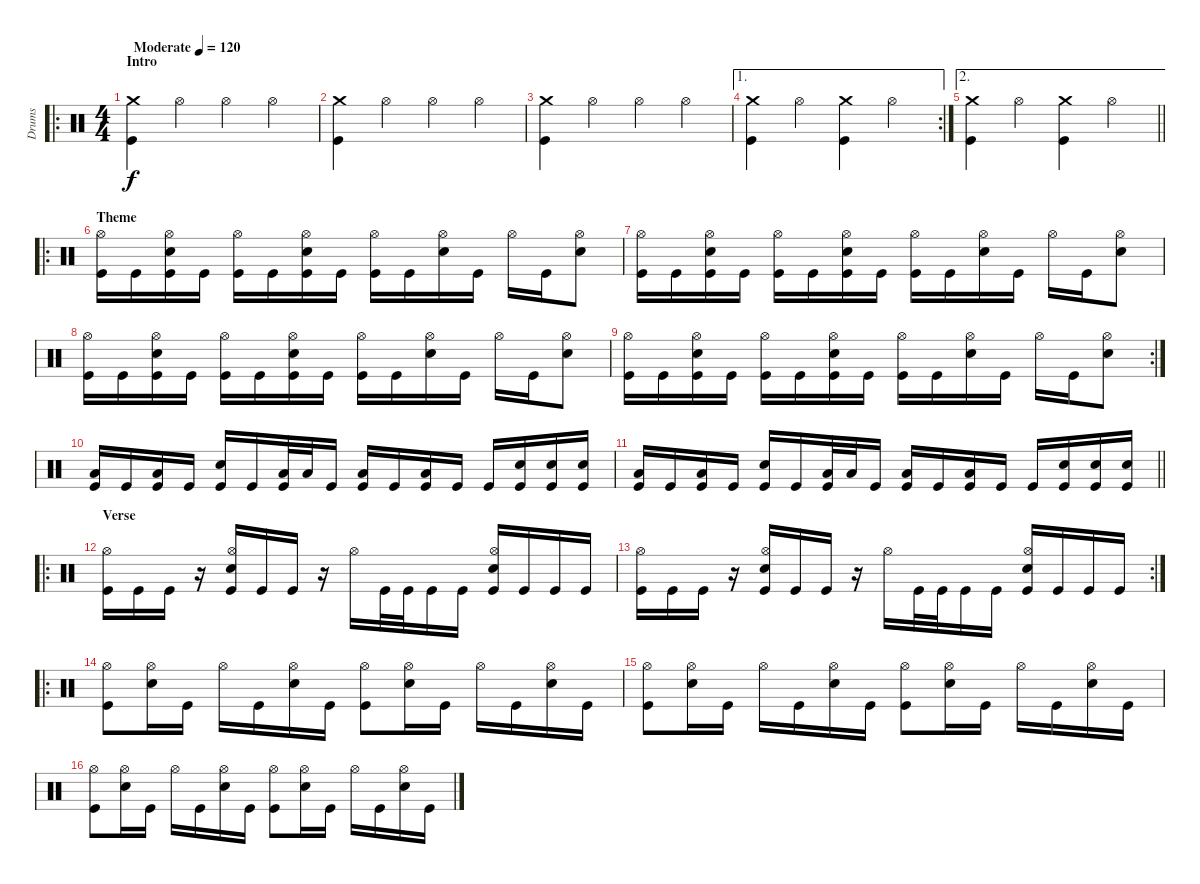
\track ("Drums" "Drums") {instrument percussion}
\staff {score}
\articulation defaults
\ro
\ts (4 4)
\section ("" "Intro")
\tempo (120 "Moderate")
\clef neutral
\ks c
("Crash medium (hit)" "Kick (hit)").4{dy f} "Hi-Hat (open)".4 "Hi-Hat (open)".4 "Hi-Hat (open)".4 |
("Crash medium (hit)" "Kick (hit)").4 "Hi-Hat (open)".4 "Hi-Hat (open)".4 "Hi-Hat (open)".4 |
("Crash medium (hit)" "Kick (hit)").4 "Hi-Hat (open)".4 "Hi-Hat (open)".4 "Hi-Hat (open)".4 |
\ae 1
\rc 2
("Crash medium (hit)" "Kick (hit)").4 "Hi-Hat (open)".4 ("Crash medium (hit)" "Kick (hit)").4 "Hi-Hat (open)".4 |
\ae 2
\barLineRight lightlight
("Crash medium (hit)" "Kick (hit)").4 "Hi-Hat (open)".4 ("Crash medium (hit)" "Kick (hit)").4 "Hi-Hat (open)".4 |
\ro
\section ("" "Theme")
("Hi-Hat (open)" "Kick (hit)").16 "Kick (hit)".16 ("Hi-Hat (open)" "Snare (hit) 2" "Kick (hit)").16 "Kick (hit)".16 ("Hi-Hat (open)" "Kick (hit)").16 "Kick (hit)".16 ("Hi-Hat (open)" "Snare (hit) 2" "Kick (hit)").16 "Kick (hit)".16 ("Hi-Hat (open)" "Kick (hit)").16 "Kick (hit)".16 ("Hi-Hat (open)" "Snare (hit) 2").16 "Kick (hit)".16 "Hi-Hat (open)".16 "Kick (hit)".16 ("Hi-Hat (open)" "Snare (hit) 2").8 |
("Hi-Hat (open)" "Kick (hit)").16 "Kick (hit)".16 ("Hi-Hat (open)" "Snare (hit) 2" "Kick (hit)").16 "Kick (hit)".16 ("Hi-Hat (open)" "Kick (hit)").16 "Kick (hit)".16 ("Hi-Hat (open)" "Snare (hit) 2" "Kick (hit)").16 "Kick (hit)".16 ("Hi-Hat (open)" "Kick (hit)").16 "Kick (hit)".16 ("Hi-Hat (open)" "Snare (hit) 2").16 "Kick (hit)".16 "Hi-Hat (open)".16 "Kick (hit)".16 ("Hi-Hat (open)" "Snare (hit) 2").8 |
("Hi-Hat (open)" "Kick (hit)").16 "Kick (hit)".16 ("Hi-Hat (open)" "Snare (hit) 2" "Kick (hit)").16 "Kick (hit)".16 ("Hi-Hat (open)" "Kick (hit)").16 "Kick (hit)".16 ("Hi-Hat (open)" "Snare (hit) 2" "Kick (hit)").16 "Kick (hit)".16 ("Hi-Hat (open)" "Kick (hit)").16 "Kick (hit)".16 ("Hi-Hat (open)" "Snare (hit) 2").16 "Kick (hit)".16 "Hi-Hat (open)".16 "Kick (hit)".16 ("Hi-Hat (open)" "Snare (hit) 2").8 |
\rc 2
("Hi-Hat (open)" "Kick (hit)").16 "Kick (hit)".16 ("Hi-Hat (open)" "Snare (hit) 2" "Kick (hit)").16 "Kick (hit)".16 ("Hi-Hat (open)" "Kick (hit)").16 "Kick (hit)".16 ("Hi-Hat (open)" "Snare (hit) 2" "Kick (hit)").16 "Kick (hit)".16 ("Hi-Hat (open)" "Kick (hit)").16 "Kick (hit)".16 ("Hi-Hat (open)" "Snare (hit) 2").16 "Kick (hit)".16 "Hi-Hat (open)".16 "Kick (hit)".16 ("Hi-Hat (open)" "Snare (hit) 2").8 |
("Low Floor Tom (hit)" "Kick (hit)").16 "Kick (hit)".16 ("Low Floor Tom (hit)" "Kick (hit)").16 "Kick (hit)".16 ("Snare (hit) 2" "Kick (hit)").16 "Kick (hit)".16 ("Low Tom (hit)" "Kick (hit)").32 "Low Tom (hit)".32 "Kick (hit)".16 ("Low Floor Tom (hit)" "Kick (hit)").16 "Kick (hit)".16 ("Low Floor Tom (hit)" "Kick (hit)").16 "Kick (hit)".16 "Kick (hit)".16 ("Snare (hit) 2" "Kick (hit)").16 ("Snare (hit) 2" "Kick (hit)").16 ("Snare (hit) 2" "Kick (hit)").16 |
\barLineRight lightlight
("Low Floor Tom (hit)" "Kick (hit)").16 "Kick (hit)".16 ("Low Floor Tom (hit)" "Kick (hit)").16 "Kick (hit)".16 ("Snare (hit) 2" "Kick (hit)").16 "Kick (hit)".16 ("Low Tom (hit)" "Kick (hit)").32 "Low Tom (hit)".32 "Kick (hit)".16 ("Low Floor Tom (hit)" "Kick (hit)").16 "Kick (hit)".16 ("Low Floor Tom (hit)" "Kick (hit)").16 "Kick (hit)".16 "Kick (hit)".16 ("Snare (hit) 2" "Kick (hit)").16 ("Snare (hit) 2" "Kick (hit)").16 ("Snare (hit) 2" "Kick (hit)").16 |
\ro
\section ("" "Verse")
("Hi-Hat (open)" "Kick (hit)").16 "Kick (hit)".16 "Kick (hit)".16 r.16 ("Hi-Hat (open)" "Snare (hit) 2" "Kick (hit)").16 "Kick (hit)".16 "Kick (hit)".16 r.16 "Hi-Hat (open)".16 "Kick (hit)".32 "Kick (hit)".32 "Kick (hit)".16 "Kick (hit)".16 ("Hi-Hat (open)" "Snare (hit) 2" "Kick (hit)").16 "Kick (hit)".16 "Kick (hit)".16 "Kick (hit)".16 |
\rc 2
("Hi-Hat (open)" "Kick (hit)").16 "Kick (hit)".16 "Kick (hit)".16 r.16 ("Hi-Hat (open)" "Snare (hit) 2" "Kick (hit)").16 "Kick (hit)".16 "Kick (hit)".16 r.16 "Hi-Hat (open)".16 "Kick (hit)".32 "Kick (hit)".32 "Kick (hit)".16 "Kick (hit)".16 ("Hi-Hat (open)" "Snare (hit) 2" "Kick (hit)").16 "Kick (hit)".16 "Kick (hit)".16 "Kick (hit)".16 |
\ro
("Hi-Hat (open)" "Kick (hit)").8 ("Hi-Hat (open)" "Snare (hit) 2").16 "Kick (hit)".16 "Hi-Hat (open)".16 "Kick (hit)".16 ("Hi-Hat (open)" "Snare (hit) 2").16 "Kick (hit)".16 ("Hi-Hat (open)" "Kick (hit)").8 ("Hi-Hat (open)" "Snare (hit) 2").16 "Kick (hit)".16 "Hi-Hat (open)".16 "Kick (hit)".16 ("Hi-Hat (open)" "Snare (hit) 2").16 "Kick (hit)".16 |
("Hi-Hat (open)" "Kick (hit)").8 ("Hi-Hat (open)" "Snare (hit) 2").16 "Kick (hit)".16 "Hi-Hat (open)".16 "Kick (hit)".16 ("Hi-Hat (open)" "Snare (hit) 2").16 "Kick (hit)".16 ("Hi-Hat (open)" "Kick (hit)").8 ("Hi-Hat (open)" "Snare (hit) 2").16 "Kick (hit)".16 "Hi-Hat (open)".16 "Kick (hit)".16 ("Hi-Hat (open)" "Snare (hit) 2").16 "Kick (hit)".16 |
("Hi-Hat (open)" "Kick (hit)").8 ("Hi-Hat (open)" "Snare (hit) 2").16 "Kick (hit)".16 "Hi-Hat (open)".16 "Kick (hit)".16 ("Hi-Hat (open)" "Snare (hit) 2").16 "Kick (hit)".16 ("Hi-Hat (open)" "Kick (hit)").8 ("Hi-Hat (open)" "Snare (hit) 2").16 "Kick (hit)".16 "Hi-Hat (open)".16 "Kick (hit)".16 ("Hi-Hat (open)" "Snare (hit) 2").16 "Kick (hit)".16
